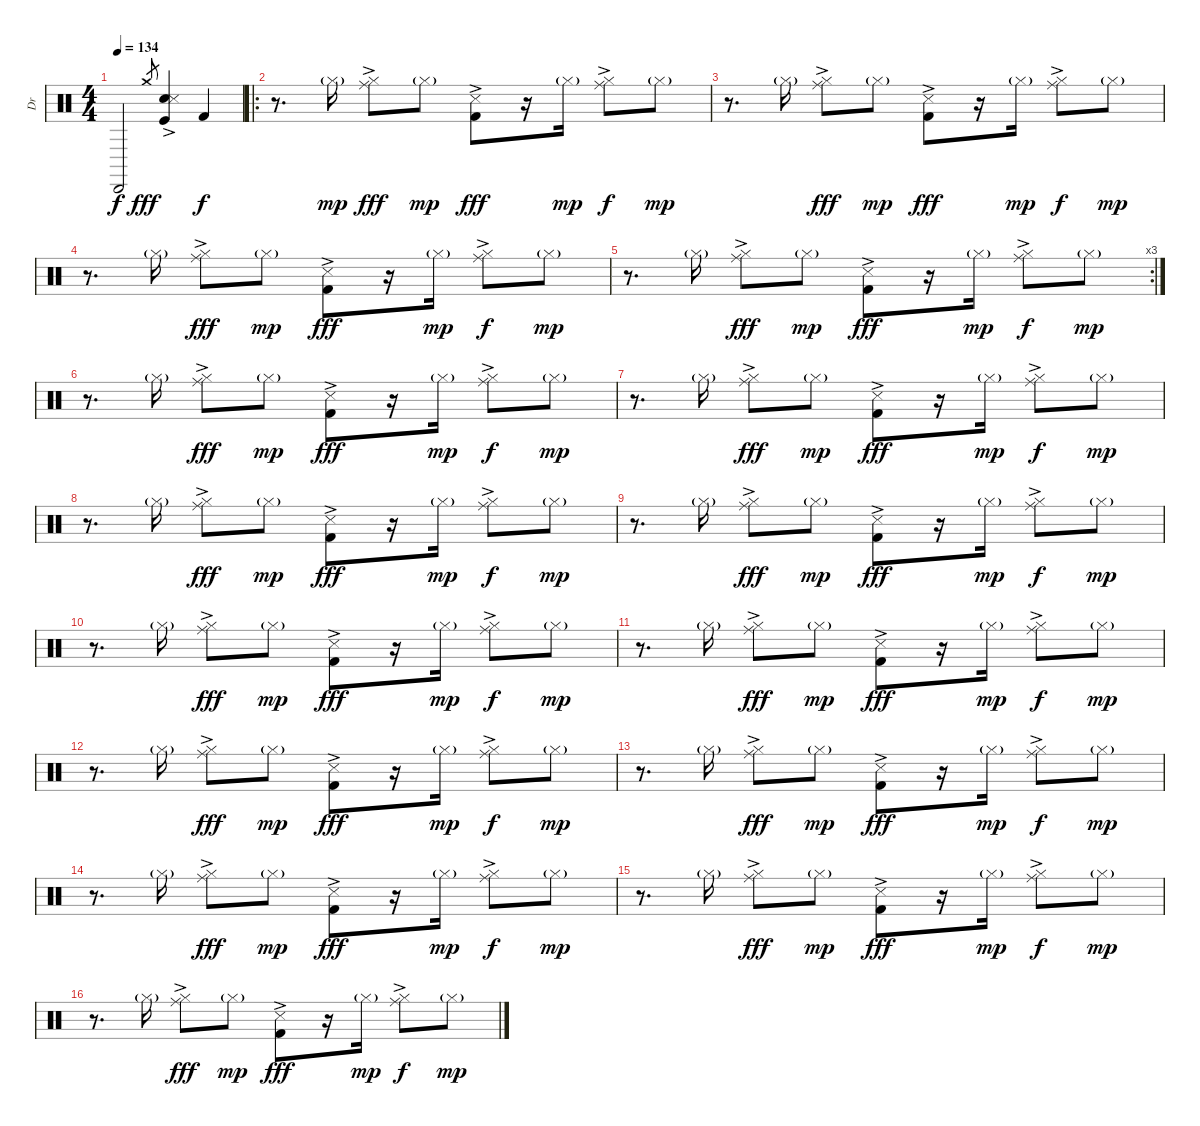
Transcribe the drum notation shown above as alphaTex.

\track ("Dr" "Dr") {instrument percussion}
\staff {score}
\articulation defaults
\ts (4 4)
\tempo 134
\clef neutral
\ks c "Cabasa (hit)".2{dy f} "Crash medium (hit)".8{gr dy fff}
("Electric Snare (hit)"{ac} "Snare (side stick) 3"{ac} "Kick (hit)").4 "Kick (hit) 2".4{dy f} |
\ro
r.8{d} "Hi-Hat (closed)"{g}.16{dy mp} ("Ride (middle)" "Hi-Hat (closed)"{ac}).8{dy fff} "Hi-Hat (closed)"{g}.8{dy mp} ("Snare (side stick) 3"{ac} "Kick (hit) 2").8{dy fff} r.16 "Hi-Hat (closed)"{g}.16{dy mp} ("Ride (middle)" "Hi-Hat (closed)"{ac}).8{dy f} "Hi-Hat (closed)"{g}.8{dy mp} |
r.8{d} "Hi-Hat (closed)"{g}.16 ("Ride (middle)" "Hi-Hat (closed)"{ac}).8{dy fff} "Hi-Hat (closed)"{g}.8{dy mp} ("Snare (side stick) 3"{ac} "Kick (hit) 2").8{dy fff} r.16 "Hi-Hat (closed)"{g}.16{dy mp} ("Ride (middle)" "Hi-Hat (closed)"{ac}).8{dy f} "Hi-Hat (closed)"{g}.8{dy mp} |
r.8{d} "Hi-Hat (closed)"{g}.16 ("Ride (middle)" "Hi-Hat (closed)"{ac}).8{dy fff} "Hi-Hat (closed)"{g}.8{dy mp} ("Snare (side stick) 3"{ac} "Kick (hit) 2").8{dy fff} r.16 "Hi-Hat (closed)"{g}.16{dy mp} ("Ride (middle)" "Hi-Hat (closed)"{ac}).8{dy f} "Hi-Hat (closed)"{g}.8{dy mp} |
\rc 3
r.8{d} "Hi-Hat (closed)"{g}.16 ("Ride (middle)" "Hi-Hat (closed)"{ac}).8{dy fff} "Hi-Hat (closed)"{g}.8{dy mp} ("Snare (side stick) 3"{ac} "Kick (hit) 2").8{dy fff} r.16 "Hi-Hat (closed)"{g}.16{dy mp} ("Ride (middle)" "Hi-Hat (closed)"{ac}).8{dy f} "Hi-Hat (closed)"{g}.8{dy mp} |
r.8{d} "Hi-Hat (closed)"{g}.16 ("Ride (middle)" "Hi-Hat (closed)"{ac}).8{dy fff} "Hi-Hat (closed)"{g}.8{dy mp} ("Snare (side stick) 3"{ac} "Kick (hit) 2").8{dy fff} r.16 "Hi-Hat (closed)"{g}.16{dy mp} ("Ride (middle)" "Hi-Hat (closed)"{ac}).8{dy f} "Hi-Hat (closed)"{g}.8{dy mp} |
r.8{d} "Hi-Hat (closed)"{g}.16 ("Ride (middle)" "Hi-Hat (closed)"{ac}).8{dy fff} "Hi-Hat (closed)"{g}.8{dy mp} ("Snare (side stick) 3"{ac} "Kick (hit) 2").8{dy fff} r.16 "Hi-Hat (closed)"{g}.16{dy mp} ("Ride (middle)" "Hi-Hat (closed)"{ac}).8{dy f} "Hi-Hat (closed)"{g}.8{dy mp} |
r.8{d} "Hi-Hat (closed)"{g}.16 ("Ride (middle)" "Hi-Hat (closed)"{ac}).8{dy fff} "Hi-Hat (closed)"{g}.8{dy mp} ("Snare (side stick) 3"{ac} "Kick (hit) 2").8{dy fff} r.16 "Hi-Hat (closed)"{g}.16{dy mp} ("Ride (middle)" "Hi-Hat (closed)"{ac}).8{dy f} "Hi-Hat (closed)"{g}.8{dy mp} |
r.8{d} "Hi-Hat (closed)"{g}.16 ("Ride (middle)" "Hi-Hat (closed)"{ac}).8{dy fff} "Hi-Hat (closed)"{g}.8{dy mp} ("Snare (side stick) 3"{ac} "Kick (hit) 2").8{dy fff} r.16 "Hi-Hat (closed)"{g}.16{dy mp} ("Ride (middle)" "Hi-Hat (closed)"{ac}).8{dy f} "Hi-Hat (closed)"{g}.8{dy mp} |
r.8{d} "Hi-Hat (closed)"{g}.16 ("Ride (middle)" "Hi-Hat (closed)"{ac}).8{dy fff} "Hi-Hat (closed)"{g}.8{dy mp} ("Snare (side stick) 3"{ac} "Kick (hit) 2").8{dy fff} r.16 "Hi-Hat (closed)"{g}.16{dy mp} ("Ride (middle)" "Hi-Hat (closed)"{ac}).8{dy f} "Hi-Hat (closed)"{g}.8{dy mp} |
r.8{d} "Hi-Hat (closed)"{g}.16 ("Ride (middle)" "Hi-Hat (closed)"{ac}).8{dy fff} "Hi-Hat (closed)"{g}.8{dy mp} ("Snare (side stick) 3"{ac} "Kick (hit) 2").8{dy fff} r.16 "Hi-Hat (closed)"{g}.16{dy mp} ("Ride (middle)" "Hi-Hat (closed)"{ac}).8{dy f} "Hi-Hat (closed)"{g}.8{dy mp} |
r.8{d} "Hi-Hat (closed)"{g}.16 ("Ride (middle)" "Hi-Hat (closed)"{ac}).8{dy fff} "Hi-Hat (closed)"{g}.8{dy mp} ("Snare (side stick) 3"{ac} "Kick (hit) 2").8{dy fff} r.16 "Hi-Hat (closed)"{g}.16{dy mp} ("Ride (middle)" "Hi-Hat (closed)"{ac}).8{dy f} "Hi-Hat (closed)"{g}.8{dy mp} |
r.8{d} "Hi-Hat (closed)"{g}.16 ("Ride (middle)" "Hi-Hat (closed)"{ac}).8{dy fff} "Hi-Hat (closed)"{g}.8{dy mp} ("Snare (side stick) 3"{ac} "Kick (hit) 2").8{dy fff} r.16 "Hi-Hat (closed)"{g}.16{dy mp} ("Ride (middle)" "Hi-Hat (closed)"{ac}).8{dy f} "Hi-Hat (closed)"{g}.8{dy mp} |
r.8{d} "Hi-Hat (closed)"{g}.16 ("Ride (middle)" "Hi-Hat (closed)"{ac}).8{dy fff} "Hi-Hat (closed)"{g}.8{dy mp} ("Snare (side stick) 3"{ac} "Kick (hit) 2").8{dy fff} r.16 "Hi-Hat (closed)"{g}.16{dy mp} ("Ride (middle)" "Hi-Hat (closed)"{ac}).8{dy f} "Hi-Hat (closed)"{g}.8{dy mp} |
r.8{d} "Hi-Hat (closed)"{g}.16 ("Ride (middle)" "Hi-Hat (closed)"{ac}).8{dy fff} "Hi-Hat (closed)"{g}.8{dy mp} ("Snare (side stick) 3"{ac} "Kick (hit) 2").8{dy fff} r.16 "Hi-Hat (closed)"{g}.16{dy mp} ("Ride (middle)" "Hi-Hat (closed)"{ac}).8{dy f} "Hi-Hat (closed)"{g}.8{dy mp} |
r.8{d} "Hi-Hat (closed)"{g}.16 ("Ride (middle)" "Hi-Hat (closed)"{ac}).8{dy fff} "Hi-Hat (closed)"{g}.8{dy mp} ("Snare (side stick) 3"{ac} "Kick (hit) 2").8{dy fff} r.16 "Hi-Hat (closed)"{g}.16{dy mp} ("Ride (middle)" "Hi-Hat (closed)"{ac}).8{dy f} "Hi-Hat (closed)"{g}.8{dy mp}
